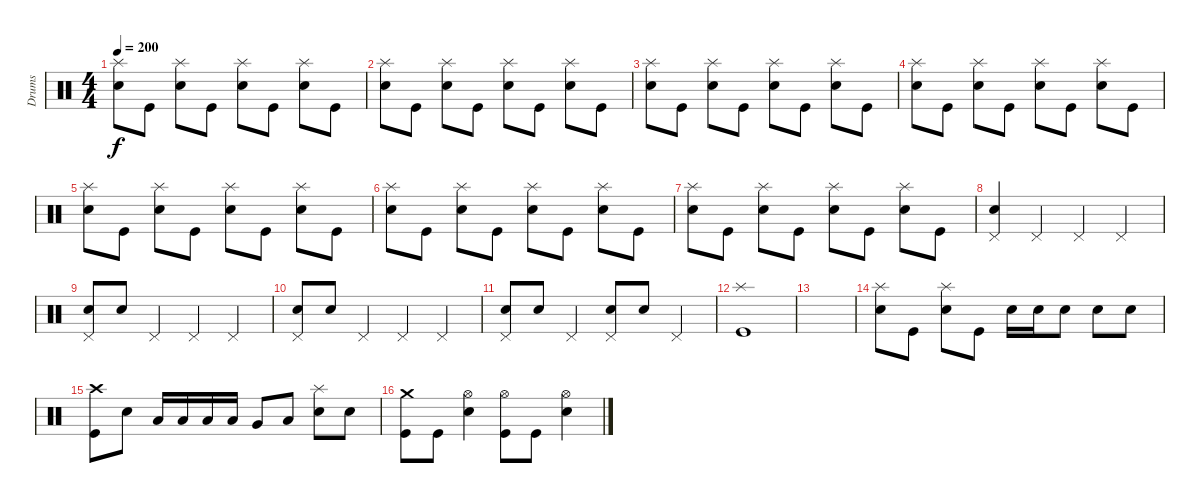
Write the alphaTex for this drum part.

\track ("Drums" "Drums") {instrument percussion}
\staff {score}
\articulation defaults
\ts (4 4)
\tempo 200
\clef neutral
\ks c
("Splash (hit)" "Electric Snare (hit)").8{dy f} "Kick (hit)".8 ("Splash (hit)" "Electric Snare (hit)").8 "Kick (hit)".8 ("Splash (hit)" "Electric Snare (hit)").8 "Kick (hit)".8 ("Splash (hit)" "Electric Snare (hit)").8 "Kick (hit)".8 |
("Splash (hit)" "Electric Snare (hit)").8 "Kick (hit)".8 ("Splash (hit)" "Electric Snare (hit)").8 "Kick (hit)".8 ("Splash (hit)" "Electric Snare (hit)").8 "Kick (hit)".8 ("Splash (hit)" "Electric Snare (hit)").8 "Kick (hit)".8 |
("Splash (hit)" "Electric Snare (hit)").8 "Kick (hit)".8 ("Splash (hit)" "Electric Snare (hit)").8 "Kick (hit)".8 ("Splash (hit)" "Electric Snare (hit)").8 "Kick (hit)".8 ("Splash (hit)" "Electric Snare (hit)").8 "Kick (hit)".8 |
("Splash (hit)" "Electric Snare (hit)").8 "Kick (hit)".8 ("Splash (hit)" "Electric Snare (hit)").8 "Kick (hit)".8 ("Splash (hit)" "Electric Snare (hit)").8 "Kick (hit)".8 ("Splash (hit)" "Electric Snare (hit)").8 "Kick (hit)".8 |
("Splash (hit)" "Electric Snare (hit)").8 "Kick (hit)".8 ("Splash (hit)" "Electric Snare (hit)").8 "Kick (hit)".8 ("Splash (hit)" "Electric Snare (hit)").8 "Kick (hit)".8 ("Splash (hit)" "Electric Snare (hit)").8 "Kick (hit)".8 |
("Splash (hit)" "Electric Snare (hit)").8 "Kick (hit)".8 ("Splash (hit)" "Electric Snare (hit)").8 "Kick (hit)".8 ("Splash (hit)" "Electric Snare (hit)").8 "Kick (hit)".8 ("Splash (hit)" "Electric Snare (hit)").8 "Kick (hit)".8 |
("Splash (hit)" "Electric Snare (hit)").8 "Kick (hit)".8 ("Splash (hit)" "Electric Snare (hit)").8 "Kick (hit)".8 ("Splash (hit)" "Electric Snare (hit)").8 "Kick (hit)".8 ("Splash (hit)" "Electric Snare (hit)").8 "Kick (hit)".8 |
("Pedal Hi-Hat (hit)" "Electric Snare (hit)").4 "Pedal Hi-Hat (hit)".4 "Pedal Hi-Hat (hit)".4 "Pedal Hi-Hat (hit)".4 |
("Pedal Hi-Hat (hit)" "Electric Snare (hit)").8 "Electric Snare (hit)".8 "Pedal Hi-Hat (hit)".4 "Pedal Hi-Hat (hit)".4 "Pedal Hi-Hat (hit)".4 |
("Pedal Hi-Hat (hit)" "Electric Snare (hit)").8 "Electric Snare (hit)".8 "Pedal Hi-Hat (hit)".4 "Pedal Hi-Hat (hit)".4 "Pedal Hi-Hat (hit)".4 |
("Pedal Hi-Hat (hit)" "Electric Snare (hit)").8 "Electric Snare (hit)".8 "Pedal Hi-Hat (hit)".4 ("Pedal Hi-Hat (hit)" "Electric Snare (hit)").8 "Electric Snare (hit)".8 "Pedal Hi-Hat (hit)".4 |
("Splash (hit)" "Kick (hit)").1 |
|
("Splash (hit)" "Electric Snare (hit)").8 "Kick (hit)".8 ("Splash (hit)" "Electric Snare (hit)").8 "Kick (hit)".8 "Electric Snare (hit)".16 "Electric Snare (hit)".16 "Electric Snare (hit)".8 "Electric Snare (hit)".8 "Electric Snare (hit)".8 |
("Crash high (hit)" "Kick (hit)").8 "Electric Snare (hit)".8 "Low Tom (hit)".16 "Low Tom (hit)".16 "Low Tom (hit)".16 "Low Tom (hit)".16 "Very Low Tom (hit)".8 "Low Floor Tom (hit)".8 ("Splash (hit)" "Electric Snare (hit)").8 "Electric Snare (hit)".8 |
("Crash medium (hit)" "Kick (hit)").8 "Kick (hit)".8 ("Hi-Hat (open)" "Electric Snare (hit)").4 ("Hi-Hat (open)" "Kick (hit)").8 "Kick (hit)".8 ("Hi-Hat (open)" "Electric Snare (hit)").4
